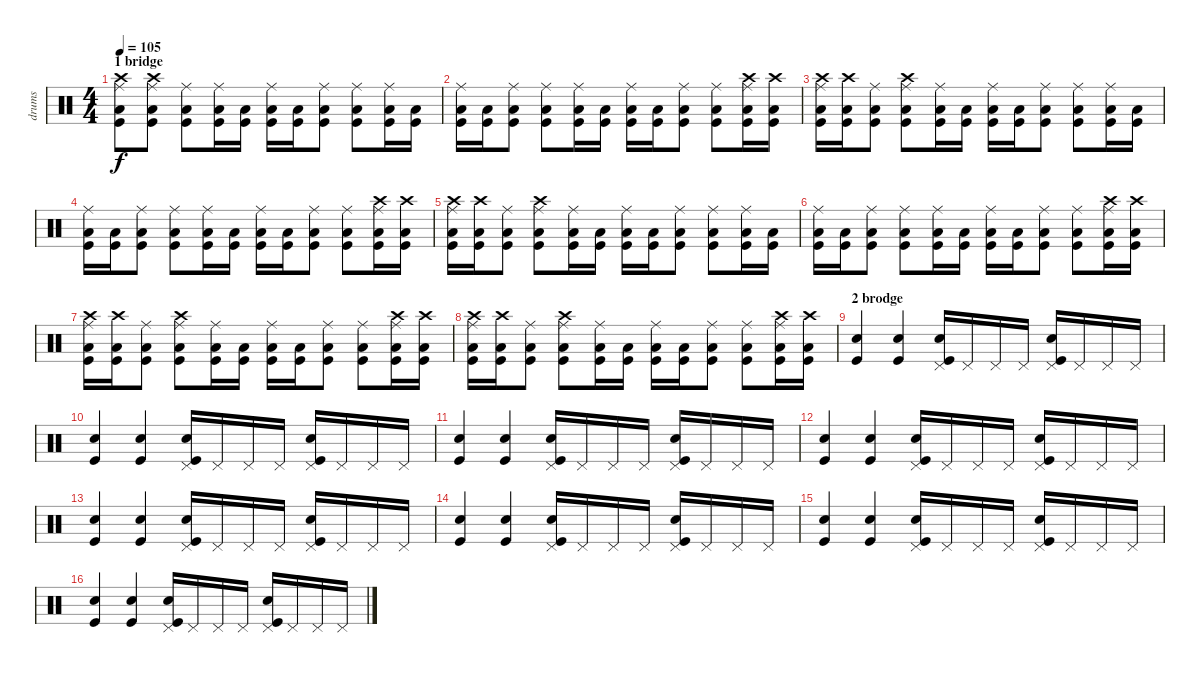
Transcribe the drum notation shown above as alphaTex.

\track ("drums" "drums") {instrument percussion}
\staff {score}
\articulation defaults
\ts (4 4)
\section ("" "1 bridge")
\tempo 105
\clef neutral
\ks c
("Crash high (hit)" "Ride (middle)" "Low Floor Tom (hit)" "Kick (hit)").8{dy f} ("Crash high (hit)" "Ride (middle)" "Low Floor Tom (hit)" "Kick (hit)").8 ("Ride (middle)" "Low Floor Tom (hit)" "Kick (hit)").8 ("Ride (middle)" "Low Floor Tom (hit)" "Kick (hit)").16 ("Low Floor Tom (hit)" "Kick (hit)").16 ("Ride (middle)" "Low Floor Tom (hit)" "Kick (hit)").16 ("Low Floor Tom (hit)" "Kick (hit)").16 ("Ride (middle)" "Low Floor Tom (hit)" "Kick (hit)").8 ("Ride (middle)" "Low Floor Tom (hit)" "Kick (hit)").8 ("Ride (middle)" "Low Floor Tom (hit)" "Kick (hit)").16 ("Low Floor Tom (hit)" "Kick (hit)").16 |
\section ("" "")
("Ride (middle)" "Low Floor Tom (hit)" "Kick (hit)").16 ("Low Floor Tom (hit)" "Kick (hit)").16 ("Ride (middle)" "Low Floor Tom (hit)" "Kick (hit)").8 ("Ride (middle)" "Low Floor Tom (hit)" "Kick (hit)").8 ("Ride (middle)" "Low Floor Tom (hit)" "Kick (hit)").16 ("Low Floor Tom (hit)" "Kick (hit)").16 ("Ride (middle)" "Low Floor Tom (hit)" "Kick (hit)").16 ("Low Floor Tom (hit)" "Kick (hit)").16 ("Ride (middle)" "Low Floor Tom (hit)" "Kick (hit)").8 ("Ride (middle)" "Low Floor Tom (hit)" "Kick (hit)").8 ("Crash high (hit)" "Ride (middle)" "Low Floor Tom (hit)" "Kick (hit)").16 ("Crash high (hit)" "Low Floor Tom (hit)" "Kick (hit)").16 |
("Crash high (hit)" "Ride (middle)" "Low Floor Tom (hit)" "Kick (hit)").16 ("Crash high (hit)" "Low Floor Tom (hit)" "Kick (hit)").16 ("Ride (middle)" "Low Floor Tom (hit)" "Kick (hit)").8 ("Crash high (hit)" "Ride (middle)" "Low Floor Tom (hit)" "Kick (hit)").8 ("Ride (middle)" "Low Floor Tom (hit)" "Kick (hit)").16 ("Low Floor Tom (hit)" "Kick (hit)").16 ("Ride (middle)" "Low Floor Tom (hit)" "Kick (hit)").16 ("Low Floor Tom (hit)" "Kick (hit)").16 ("Ride (middle)" "Low Floor Tom (hit)" "Kick (hit)").8 ("Ride (middle)" "Low Floor Tom (hit)" "Kick (hit)").8 ("Ride (middle)" "Low Floor Tom (hit)" "Kick (hit)").16 ("Low Floor Tom (hit)" "Kick (hit)").16 |
("Ride (middle)" "Low Floor Tom (hit)" "Kick (hit)").16 ("Low Floor Tom (hit)" "Kick (hit)").16 ("Ride (middle)" "Low Floor Tom (hit)" "Kick (hit)").8 ("Ride (middle)" "Low Floor Tom (hit)" "Kick (hit)").8 ("Ride (middle)" "Low Floor Tom (hit)" "Kick (hit)").16 ("Low Floor Tom (hit)" "Kick (hit)").16 ("Ride (middle)" "Low Floor Tom (hit)" "Kick (hit)").16 ("Low Floor Tom (hit)" "Kick (hit)").16 ("Ride (middle)" "Low Floor Tom (hit)" "Kick (hit)").8 ("Ride (middle)" "Low Floor Tom (hit)" "Kick (hit)").8 ("Crash high (hit)" "Ride (middle)" "Low Floor Tom (hit)" "Kick (hit)").16 ("Crash high (hit)" "Low Floor Tom (hit)" "Kick (hit)").16 |
("Crash high (hit)" "Ride (middle)" "Low Floor Tom (hit)" "Kick (hit)").16 ("Crash high (hit)" "Low Floor Tom (hit)" "Kick (hit)").16 ("Ride (middle)" "Low Floor Tom (hit)" "Kick (hit)").8 ("Crash high (hit)" "Ride (middle)" "Low Floor Tom (hit)" "Kick (hit)").8 ("Ride (middle)" "Low Floor Tom (hit)" "Kick (hit)").16 ("Low Floor Tom (hit)" "Kick (hit)").16 ("Ride (middle)" "Low Floor Tom (hit)" "Kick (hit)").16 ("Low Floor Tom (hit)" "Kick (hit)").16 ("Ride (middle)" "Low Floor Tom (hit)" "Kick (hit)").8 ("Ride (middle)" "Low Floor Tom (hit)" "Kick (hit)").8 ("Ride (middle)" "Low Floor Tom (hit)" "Kick (hit)").16 ("Low Floor Tom (hit)" "Kick (hit)").16 |
("Ride (middle)" "Low Floor Tom (hit)" "Kick (hit)").16 ("Low Floor Tom (hit)" "Kick (hit)").16 ("Ride (middle)" "Low Floor Tom (hit)" "Kick (hit)").8 ("Ride (middle)" "Low Floor Tom (hit)" "Kick (hit)").8 ("Ride (middle)" "Low Floor Tom (hit)" "Kick (hit)").16 ("Low Floor Tom (hit)" "Kick (hit)").16 ("Ride (middle)" "Low Floor Tom (hit)" "Kick (hit)").16 ("Low Floor Tom (hit)" "Kick (hit)").16 ("Ride (middle)" "Low Floor Tom (hit)" "Kick (hit)").8 ("Ride (middle)" "Low Floor Tom (hit)" "Kick (hit)").8 ("Crash high (hit)" "Ride (middle)" "Low Floor Tom (hit)" "Kick (hit)").16 ("Crash high (hit)" "Low Floor Tom (hit)" "Kick (hit)").16 |
("Crash high (hit)" "Ride (middle)" "Low Floor Tom (hit)" "Kick (hit)").16 ("Crash high (hit)" "Low Floor Tom (hit)" "Kick (hit)").16 ("Ride (middle)" "Low Floor Tom (hit)" "Kick (hit)").8 ("Crash high (hit)" "Ride (middle)" "Low Floor Tom (hit)" "Kick (hit)").8 ("Ride (middle)" "Low Floor Tom (hit)" "Kick (hit)").16 ("Low Floor Tom (hit)" "Kick (hit)").16 ("Ride (middle)" "Low Floor Tom (hit)" "Kick (hit)").16 ("Low Floor Tom (hit)" "Kick (hit)").16 ("Ride (middle)" "Low Floor Tom (hit)" "Kick (hit)").8 ("Ride (middle)" "Low Floor Tom (hit)" "Kick (hit)").8 ("Crash high (hit)" "Ride (middle)" "Low Floor Tom (hit)" "Kick (hit)").16 ("Crash high (hit)" "Low Floor Tom (hit)" "Kick (hit)").16 |
("Crash high (hit)" "Ride (middle)" "Low Floor Tom (hit)" "Kick (hit)").16 ("Crash high (hit)" "Low Floor Tom (hit)" "Kick (hit)").16 ("Ride (middle)" "Low Floor Tom (hit)" "Kick (hit)").8 ("Crash high (hit)" "Ride (middle)" "Low Floor Tom (hit)" "Kick (hit)").8 ("Ride (middle)" "Low Floor Tom (hit)" "Kick (hit)").16 ("Low Floor Tom (hit)" "Kick (hit)").16 ("Ride (middle)" "Low Floor Tom (hit)" "Kick (hit)").16 ("Low Floor Tom (hit)" "Kick (hit)").16 ("Ride (middle)" "Low Floor Tom (hit)" "Kick (hit)").8 ("Ride (middle)" "Low Floor Tom (hit)" "Kick (hit)").8 ("Crash high (hit)" "Ride (middle)" "Low Floor Tom (hit)" "Kick (hit)").16 ("Crash high (hit)" "Low Floor Tom (hit)" "Kick (hit)").16 |
\section ("" "2 brodge")
("Kick (hit)" "Snare (hit) 2").4 ("Kick (hit)" "Snare (hit) 2").4 ("Kick (hit)" "Pedal Hi-Hat (hit)" "Snare (hit) 2").16 "Pedal Hi-Hat (hit)".16 "Pedal Hi-Hat (hit)".16 "Pedal Hi-Hat (hit)".16 ("Kick (hit)" "Pedal Hi-Hat (hit)" "Snare (hit) 2").16 "Pedal Hi-Hat (hit)".16 "Pedal Hi-Hat (hit)".16 "Pedal Hi-Hat (hit)".16 |
("Kick (hit)" "Snare (hit) 2").4 ("Kick (hit)" "Snare (hit) 2").4 ("Kick (hit)" "Pedal Hi-Hat (hit)" "Snare (hit) 2").16 "Pedal Hi-Hat (hit)".16 "Pedal Hi-Hat (hit)".16 "Pedal Hi-Hat (hit)".16 ("Kick (hit)" "Pedal Hi-Hat (hit)" "Snare (hit) 2").16 "Pedal Hi-Hat (hit)".16 "Pedal Hi-Hat (hit)".16 "Pedal Hi-Hat (hit)".16 |
("Kick (hit)" "Snare (hit) 2").4 ("Kick (hit)" "Snare (hit) 2").4 ("Kick (hit)" "Pedal Hi-Hat (hit)" "Snare (hit) 2").16 "Pedal Hi-Hat (hit)".16 "Pedal Hi-Hat (hit)".16 "Pedal Hi-Hat (hit)".16 ("Kick (hit)" "Pedal Hi-Hat (hit)" "Snare (hit) 2").16 "Pedal Hi-Hat (hit)".16 "Pedal Hi-Hat (hit)".16 "Pedal Hi-Hat (hit)".16 |
("Kick (hit)" "Snare (hit) 2").4 ("Kick (hit)" "Snare (hit) 2").4 ("Kick (hit)" "Pedal Hi-Hat (hit)" "Snare (hit) 2").16 "Pedal Hi-Hat (hit)".16 "Pedal Hi-Hat (hit)".16 "Pedal Hi-Hat (hit)".16 ("Kick (hit)" "Pedal Hi-Hat (hit)" "Snare (hit) 2").16 "Pedal Hi-Hat (hit)".16 "Pedal Hi-Hat (hit)".16 "Pedal Hi-Hat (hit)".16 |
("Kick (hit)" "Snare (hit) 2").4 ("Kick (hit)" "Snare (hit) 2").4 ("Kick (hit)" "Pedal Hi-Hat (hit)" "Snare (hit) 2").16 "Pedal Hi-Hat (hit)".16 "Pedal Hi-Hat (hit)".16 "Pedal Hi-Hat (hit)".16 ("Kick (hit)" "Pedal Hi-Hat (hit)" "Snare (hit) 2").16 "Pedal Hi-Hat (hit)".16 "Pedal Hi-Hat (hit)".16 "Pedal Hi-Hat (hit)".16 |
("Kick (hit)" "Snare (hit) 2").4 ("Kick (hit)" "Snare (hit) 2").4 ("Kick (hit)" "Pedal Hi-Hat (hit)" "Snare (hit) 2").16 "Pedal Hi-Hat (hit)".16 "Pedal Hi-Hat (hit)".16 "Pedal Hi-Hat (hit)".16 ("Kick (hit)" "Pedal Hi-Hat (hit)" "Snare (hit) 2").16 "Pedal Hi-Hat (hit)".16 "Pedal Hi-Hat (hit)".16 "Pedal Hi-Hat (hit)".16 |
("Kick (hit)" "Snare (hit) 2").4 ("Kick (hit)" "Snare (hit) 2").4 ("Kick (hit)" "Pedal Hi-Hat (hit)" "Snare (hit) 2").16 "Pedal Hi-Hat (hit)".16 "Pedal Hi-Hat (hit)".16 "Pedal Hi-Hat (hit)".16 ("Kick (hit)" "Pedal Hi-Hat (hit)" "Snare (hit) 2").16 "Pedal Hi-Hat (hit)".16 "Pedal Hi-Hat (hit)".16 "Pedal Hi-Hat (hit)".16 |
("Kick (hit)" "Snare (hit) 2").4 ("Kick (hit)" "Snare (hit) 2").4 ("Kick (hit)" "Pedal Hi-Hat (hit)" "Snare (hit) 2").16 "Pedal Hi-Hat (hit)".16 "Pedal Hi-Hat (hit)".16 "Pedal Hi-Hat (hit)".16 ("Kick (hit)" "Pedal Hi-Hat (hit)" "Snare (hit) 2").16 "Pedal Hi-Hat (hit)".16 "Pedal Hi-Hat (hit)".16 "Pedal Hi-Hat (hit)".16
